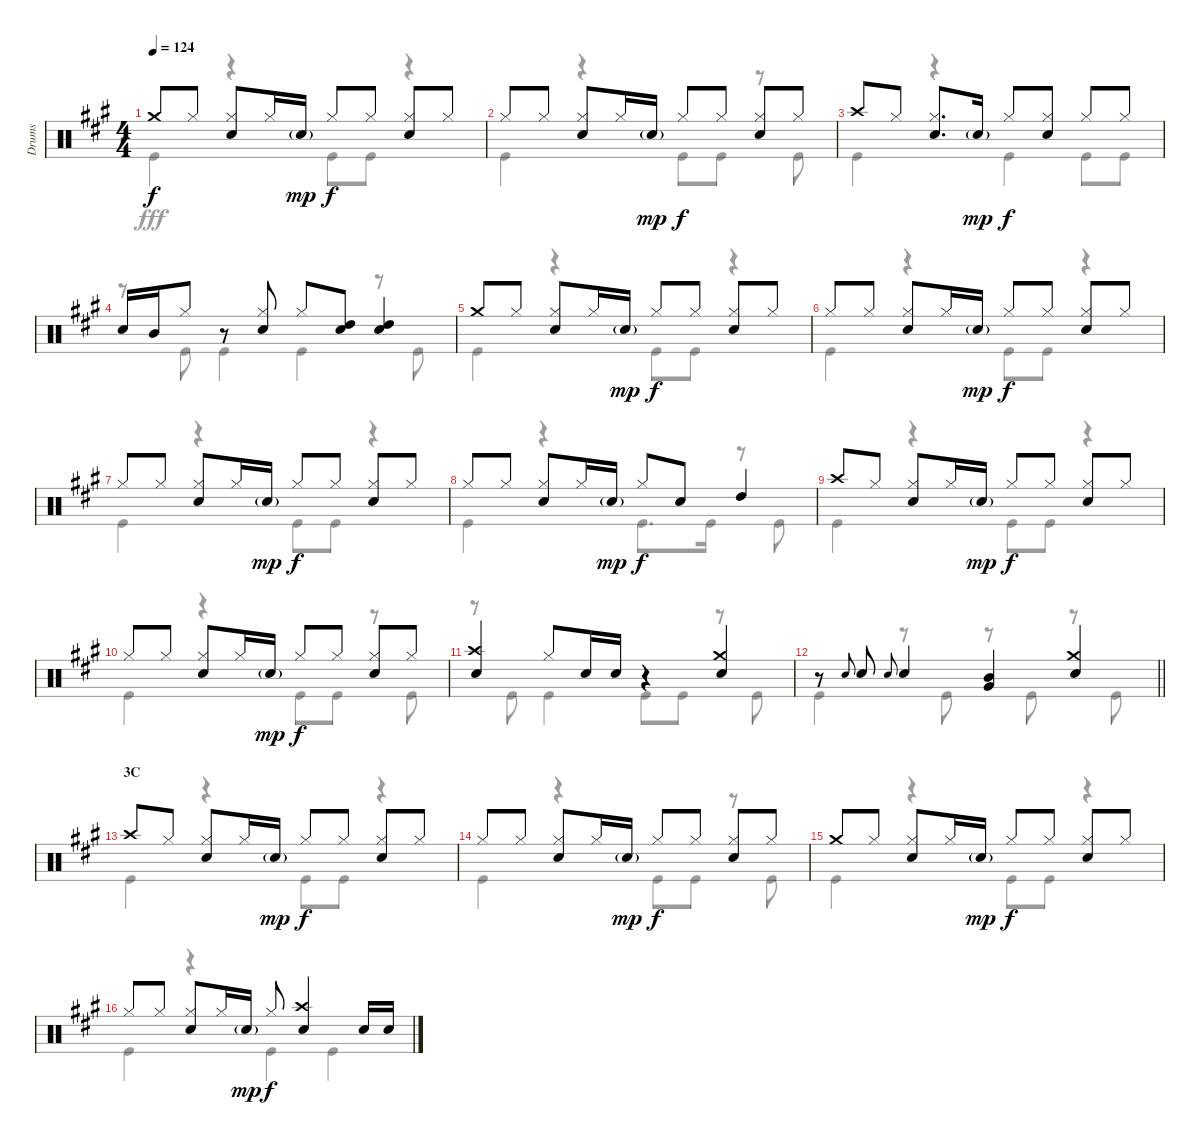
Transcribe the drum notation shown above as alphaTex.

\track ("Drums" "Drums") {instrument percussion}
\staff {score}
\articulation defaults
\voice
\ts (4 4)
\tempo 124
\clef neutral
\ks a "Crash medium (hit)".8{dy f} "Hi-Hat (closed)".8
("Hi-Hat (closed)" "Snare (hit) 2").8 "Hi-Hat (closed)".16 "Snare (hit) 2"{g}.16{dy mp} "Hi-Hat (closed)".8{dy f} "Hi-Hat (closed)".8 ("Hi-Hat (closed)" "Snare (hit) 2").8 "Hi-Hat (closed)".8 |
"Hi-Hat (closed)".8 "Hi-Hat (closed)".8 ("Hi-Hat (closed)" "Snare (hit) 2").8 "Hi-Hat (closed)".16 "Snare (hit) 2"{g}.16{dy mp} "Hi-Hat (closed)".8{dy f} "Hi-Hat (closed)".8 ("Hi-Hat (closed)" "Snare (hit) 2").8 "Hi-Hat (closed)".8 |
"Crash high (hit)".8 "Hi-Hat (closed)".8 ("Hi-Hat (closed)" "Snare (hit) 2").8{d} "Snare (hit) 2"{g}.16{dy mp} "Hi-Hat (closed)".8{dy f} ("Hi-Hat (closed)" "Snare (hit) 2").8 "Hi-Hat (closed)".8 "Hi-Hat (closed)".8 |
"Snare (hit) 2".16 "Mid Tom (hit)".16 "Hi-Hat (closed)".8 r.8 ("Hi-Hat (closed)" "Snare (hit) 2").8 "Hi-Hat (closed)".8 ("High Tom (hit)" "Snare (hit) 2").8 ("High Tom (hit)" "Snare (hit) 2").4 |
"Crash medium (hit)".8 "Hi-Hat (closed)".8 ("Hi-Hat (closed)" "Snare (hit) 2").8 "Hi-Hat (closed)".16 "Snare (hit) 2"{g}.16{dy mp} "Hi-Hat (closed)".8{dy f} "Hi-Hat (closed)".8 ("Hi-Hat (closed)" "Snare (hit) 2").8 "Hi-Hat (closed)".8 |
"Hi-Hat (closed)".8 "Hi-Hat (closed)".8 ("Hi-Hat (closed)" "Snare (hit) 2").8 "Hi-Hat (closed)".16 "Snare (hit) 2"{g}.16{dy mp} "Hi-Hat (closed)".8{dy f} "Hi-Hat (closed)".8 ("Hi-Hat (closed)" "Snare (hit) 2").8 "Hi-Hat (closed)".8 |
"Hi-Hat (closed)".8 "Hi-Hat (closed)".8 ("Hi-Hat (closed)" "Snare (hit) 2").8 "Hi-Hat (closed)".16 "Snare (hit) 2"{g}.16{dy mp} "Hi-Hat (closed)".8{dy f} "Hi-Hat (closed)".8 ("Hi-Hat (closed)" "Snare (hit) 2").8 "Hi-Hat (closed)".8 |
"Hi-Hat (closed)".8 "Hi-Hat (closed)".8 ("Hi-Hat (closed)" "Snare (hit) 2").8 "Hi-Hat (closed)".16 "Snare (hit) 2"{g}.16{dy mp} "Hi-Hat (closed)".8{dy f} "Snare (hit) 2".8 "High Tom (hit)".4 |
"Crash high (hit)".8 "Hi-Hat (closed)".8 ("Hi-Hat (closed)" "Snare (hit) 2").8 "Hi-Hat (closed)".16 "Snare (hit) 2"{g}.16{dy mp} "Hi-Hat (closed)".8{dy f} "Hi-Hat (closed)".8 ("Hi-Hat (closed)" "Snare (hit) 2").8 "Hi-Hat (closed)".8 |
"Hi-Hat (closed)".8 "Hi-Hat (closed)".8 ("Hi-Hat (closed)" "Snare (hit) 2").8 "Hi-Hat (closed)".16 "Snare (hit) 2"{g}.16{dy mp} "Hi-Hat (closed)".8{dy f} "Hi-Hat (closed)".8 ("Hi-Hat (closed)" "Snare (hit) 2").8 "Hi-Hat (closed)".8 |
("Crash high (hit)" "Snare (hit) 2").4 "Hi-Hat (closed)".8 "Snare (hit) 2".16 "Snare (hit) 2".16 r.4 ("Crash medium (hit)" "Snare (hit) 2").4 |
\barLineRight lightlight
r.8 "Snare (hit) 2".8{gr onbeat} "Snare (hit) 2".8 "Snare (hit) 2".8{gr onbeat} "Snare (hit) 2".4 ("Mid Tom (hit)" "Very Low Tom (hit)").4 ("Crash medium (hit)" "Snare (hit) 2").4 |
\section ("" "3C")
"Crash high (hit)".8 "Hi-Hat (closed)".8 ("Hi-Hat (closed)" "Snare (hit) 2").8 "Hi-Hat (closed)".16 "Snare (hit) 2"{g}.16{dy mp} "Hi-Hat (closed)".8{dy f} "Hi-Hat (closed)".8 ("Hi-Hat (closed)" "Snare (hit) 2").8 "Hi-Hat (closed)".8 |
"Hi-Hat (closed)".8 "Hi-Hat (closed)".8 ("Hi-Hat (closed)" "Snare (hit) 2").8 "Hi-Hat (closed)".16 "Snare (hit) 2"{g}.16{dy mp} "Hi-Hat (closed)".8{dy f} "Hi-Hat (closed)".8 ("Hi-Hat (closed)" "Snare (hit) 2").8 "Hi-Hat (closed)".8 |
"Crash medium (hit)".8 "Hi-Hat (closed)".8 ("Hi-Hat (closed)" "Snare (hit) 2").8 "Hi-Hat (closed)".16 "Snare (hit) 2"{g}.16{dy mp} "Hi-Hat (closed)".8{dy f} "Hi-Hat (closed)".8 ("Hi-Hat (closed)" "Snare (hit) 2").8 "Hi-Hat (closed)".8 |
"Hi-Hat (closed)".8 "Hi-Hat (closed)".8 ("Hi-Hat (closed)" "Snare (hit) 2").8 "Hi-Hat (closed)".16 "Snare (hit) 2"{g}.16{dy mp} "Hi-Hat (closed)".8{dy f} ("Crash high (hit)" "Snare (hit) 2").4 "Snare (hit) 2".16 "Snare (hit) 2".16
\voice
\clef neutral
\ottava regular
\simile none
\ks a "Kick (hit)".4{dy fff}
r.4 "Kick (hit)".8 "Kick (hit)".8 r.4 |
"Kick (hit)".4 r.4 "Kick (hit)".8 "Kick (hit)".8 r.8 "Kick (hit)".8 |
"Kick (hit)".4 r.4 "Kick (hit)".4 "Kick (hit)".8 "Kick (hit)".8 |
r.8 "Kick (hit)".8 "Kick (hit)".4 "Kick (hit)".4 r.8 "Kick (hit)".8 |
"Kick (hit)".4 r.4 "Kick (hit)".8 "Kick (hit)".8 r.4 |
"Kick (hit)".4 r.4 "Kick (hit)".8 "Kick (hit)".8 r.4 |
"Kick (hit)".4 r.4 "Kick (hit)".8 "Kick (hit)".8 r.4 |
"Kick (hit)".4 r.4 "Kick (hit)".8{d} "Kick (hit)".16 r.8 "Kick (hit)".8 |
"Kick (hit)".4 r.4 "Kick (hit)".8 "Kick (hit)".8 r.4 |
"Kick (hit)".4 r.4 "Kick (hit)".8 "Kick (hit)".8 r.8 "Kick (hit)".8 |
r.8 "Kick (hit)".8 "Kick (hit)".4 "Kick (hit)".8 "Kick (hit)".8 r.8 "Kick (hit)".8 |
\barLineRight lightlight "Kick (hit)".4
r.8 "Kick (hit)".8 r.8 "Kick (hit)".8 r.8 "Kick (hit)".8 |
"Kick (hit)".4 r.4 "Kick (hit)".8 "Kick (hit)".8 r.4 |
"Kick (hit)".4 r.4 "Kick (hit)".8 "Kick (hit)".8 r.8 "Kick (hit)".8 |
"Kick (hit)".4 r.4 "Kick (hit)".8 "Kick (hit)".8 r.4 |
"Kick (hit)".4 r.4 "Kick (hit)".4 "Kick (hit)".4
